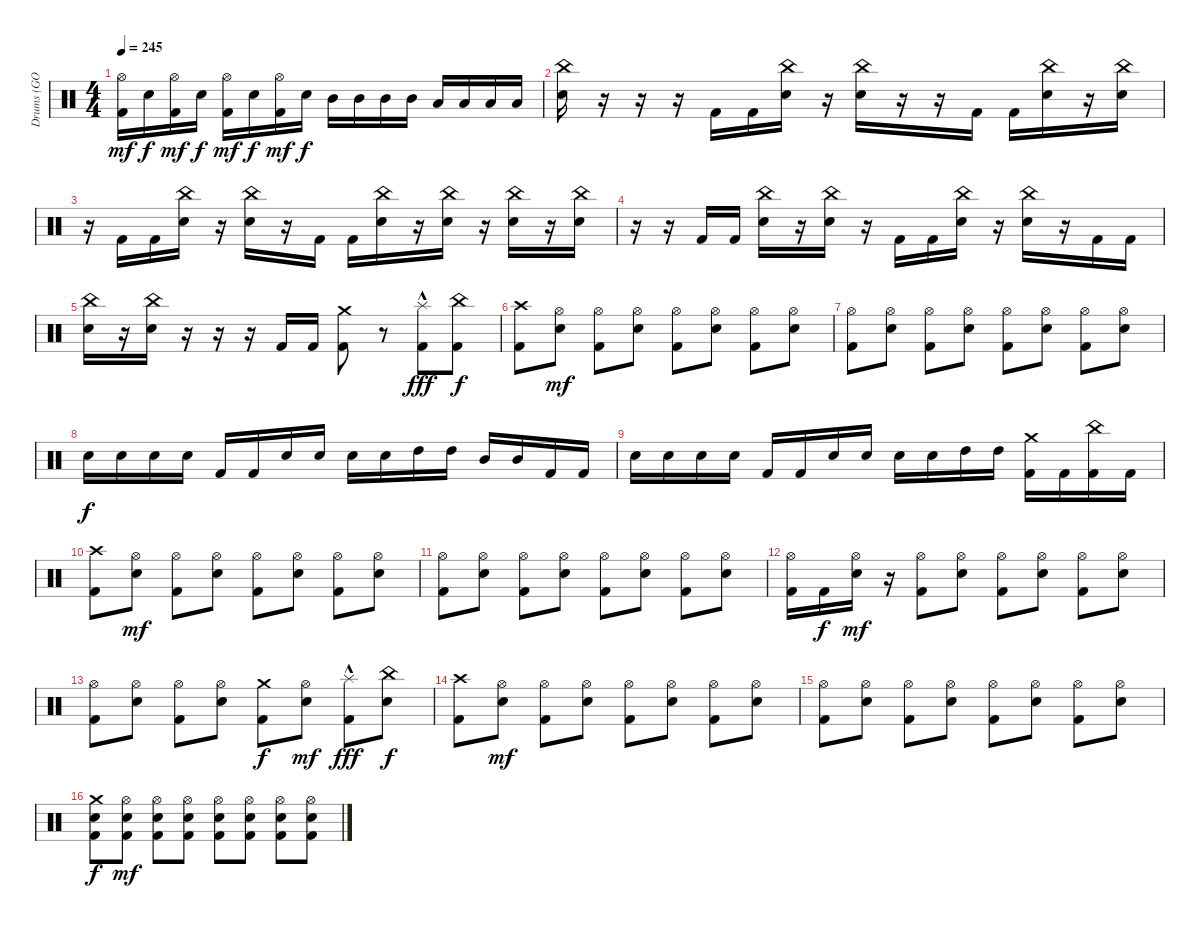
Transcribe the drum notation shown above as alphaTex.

\track ("Drums (GO DIRK)" "Drums (GO ") {instrument percussion}
\staff {score}
\articulation defaults
\ts (4 4)
\tempo 245
\clef neutral
\ks c
("Hi-Hat (open)" "Kick (hit) 2").16{dy mf} "Electric Snare (hit)".16{dy f} ("Hi-Hat (open)" "Kick (hit) 2").16{dy mf} "Electric Snare (hit)".16{dy f} ("Hi-Hat (open)" "Kick (hit) 2").16{dy mf} "Electric Snare (hit)".16{dy f} ("Hi-Hat (open)" "Kick (hit) 2").16{dy mf} "Electric Snare (hit)".16{dy f} "Mid Tom (hit)".16 "Mid Tom (hit)".16 "Mid Tom (hit)".16 "Mid Tom (hit)".16 "Low Tom (hit)".16 "Low Tom (hit)".16 "Low Tom (hit)".16 "Low Tom (hit)".16 |
("China (hit)" "Electric Snare (hit)").16 r.16 r.16 r.16 "Kick (hit) 2".16 "Kick (hit) 2".16 ("China (hit)" "Electric Snare (hit)").16 r.16 ("China (hit)" "Electric Snare (hit)").16 r.16 r.16 "Kick (hit) 2".16 "Kick (hit) 2".16 ("China (hit)" "Electric Snare (hit)").16 r.16 ("China (hit)" "Electric Snare (hit)").16 |
r.16 "Kick (hit) 2".16 "Kick (hit) 2".16 ("China (hit)" "Electric Snare (hit)").16 r.16 ("China (hit)" "Electric Snare (hit)").16 r.16 "Kick (hit) 2".16 "Kick (hit) 2".16 ("China (hit)" "Electric Snare (hit)").16 r.16 ("China (hit)" "Electric Snare (hit)").16 r.16 ("China (hit)" "Electric Snare (hit)").16 r.16 ("China (hit)" "Electric Snare (hit)").16 |
r.16 r.16 "Kick (hit) 2".16 "Kick (hit) 2".16 ("China (hit)" "Electric Snare (hit)").16 r.16 ("China (hit)" "Electric Snare (hit)").16 r.16 "Kick (hit) 2".16 "Kick (hit) 2".16 ("China (hit)" "Electric Snare (hit)").16 r.16 ("China (hit)" "Electric Snare (hit)").16 r.16 "Kick (hit) 2".16 "Kick (hit) 2".16 |
("China (hit)" "Electric Snare (hit)").16 r.16 ("China (hit)" "Electric Snare (hit)").16 r.16 r.16 r.16 "Kick (hit) 2".16 "Kick (hit) 2".16 ("Crash medium (hit)" "Kick (hit) 2").8 r.8 ("Splash (hit)"{hac} "Kick (hit) 2").8{dy fff} ("China (hit)" "Kick (hit) 2").8{dy f} |
("Crash high (hit)" "Kick (hit) 2").8 ("Hi-Hat (open)" "Electric Snare (hit)").8{dy mf} ("Hi-Hat (open)" "Kick (hit) 2").8 ("Hi-Hat (open)" "Electric Snare (hit)").8 ("Hi-Hat (open)" "Kick (hit) 2").8 ("Hi-Hat (open)" "Electric Snare (hit)").8 ("Hi-Hat (open)" "Kick (hit) 2").8 ("Hi-Hat (open)" "Electric Snare (hit)").8 |
("Hi-Hat (open)" "Kick (hit) 2").8 ("Hi-Hat (open)" "Electric Snare (hit)").8 ("Hi-Hat (open)" "Kick (hit) 2").8 ("Hi-Hat (open)" "Electric Snare (hit)").8 ("Hi-Hat (open)" "Kick (hit) 2").8 ("Hi-Hat (open)" "Electric Snare (hit)").8 ("Hi-Hat (open)" "Kick (hit) 2").8 ("Hi-Hat (open)" "Electric Snare (hit)").8 |
"Electric Snare (hit)".16{dy f} "Electric Snare (hit)".16 "Electric Snare (hit)".16 "Electric Snare (hit)".16 "Kick (hit) 2".16 "Kick (hit) 2".16 "Electric Snare (hit)".16 "Electric Snare (hit)".16 "Electric Snare (hit)".16 "Electric Snare (hit)".16 "High Tom (hit)".16 "High Tom (hit)".16 "Mid Tom (hit)".16 "Mid Tom (hit)".16 "Kick (hit) 2".16 "Kick (hit) 2".16 |
"Electric Snare (hit)".16 "Electric Snare (hit)".16 "Electric Snare (hit)".16 "Electric Snare (hit)".16 "Kick (hit) 2".16 "Kick (hit) 2".16 "Electric Snare (hit)".16 "Electric Snare (hit)".16 "Electric Snare (hit)".16 "Electric Snare (hit)".16 "High Tom (hit)".16 "High Tom (hit)".16 ("Crash medium (hit)" "Kick (hit) 2").16 "Kick (hit) 2".16 ("China (hit)" "Kick (hit) 2").16 "Kick (hit) 2".16 |
("Crash high (hit)" "Kick (hit) 2").8 ("Hi-Hat (open)" "Electric Snare (hit)").8{dy mf} ("Hi-Hat (open)" "Kick (hit) 2").8 ("Hi-Hat (open)" "Electric Snare (hit)").8 ("Hi-Hat (open)" "Kick (hit) 2").8 ("Hi-Hat (open)" "Electric Snare (hit)").8 ("Hi-Hat (open)" "Kick (hit) 2").8 ("Hi-Hat (open)" "Electric Snare (hit)").8 |
("Hi-Hat (open)" "Kick (hit) 2").8 ("Hi-Hat (open)" "Electric Snare (hit)").8 ("Hi-Hat (open)" "Kick (hit) 2").8 ("Hi-Hat (open)" "Electric Snare (hit)").8 ("Hi-Hat (open)" "Kick (hit) 2").8 ("Hi-Hat (open)" "Electric Snare (hit)").8 ("Hi-Hat (open)" "Kick (hit) 2").8 ("Hi-Hat (open)" "Electric Snare (hit)").8 |
("Hi-Hat (open)" "Kick (hit) 2").16 "Kick (hit) 2".16{dy f} ("Hi-Hat (open)" "Electric Snare (hit)").16{dy mf} r.16 ("Hi-Hat (open)" "Kick (hit) 2").8 ("Hi-Hat (open)" "Electric Snare (hit)").8 ("Hi-Hat (open)" "Kick (hit) 2").8 ("Hi-Hat (open)" "Electric Snare (hit)").8 ("Hi-Hat (open)" "Kick (hit) 2").8 ("Hi-Hat (open)" "Electric Snare (hit)").8 |
("Hi-Hat (open)" "Kick (hit) 2").8 ("Hi-Hat (open)" "Electric Snare (hit)").8 ("Hi-Hat (open)" "Kick (hit) 2").8 ("Hi-Hat (open)" "Electric Snare (hit)").8 ("Crash medium (hit)" "Kick (hit) 2").8{dy f} ("Hi-Hat (open)" "Electric Snare (hit)").8{dy mf} ("Splash (hit)"{hac} "Kick (hit) 2").8{dy fff} ("China (hit)" "Electric Snare (hit)").8{dy f} |
("Crash high (hit)" "Kick (hit) 2").8 ("Hi-Hat (open)" "Electric Snare (hit)").8{dy mf} ("Hi-Hat (open)" "Kick (hit) 2").8 ("Hi-Hat (open)" "Electric Snare (hit)").8 ("Hi-Hat (open)" "Kick (hit) 2").8 ("Hi-Hat (open)" "Electric Snare (hit)").8 ("Hi-Hat (open)" "Kick (hit) 2").8 ("Hi-Hat (open)" "Electric Snare (hit)").8 |
("Hi-Hat (open)" "Kick (hit) 2").8 ("Hi-Hat (open)" "Electric Snare (hit)").8 ("Hi-Hat (open)" "Kick (hit) 2").8 ("Hi-Hat (open)" "Electric Snare (hit)").8 ("Hi-Hat (open)" "Kick (hit) 2").8 ("Hi-Hat (open)" "Electric Snare (hit)").8 ("Hi-Hat (open)" "Kick (hit) 2").8 ("Hi-Hat (open)" "Electric Snare (hit)").8 |
("Crash medium (hit)" "Electric Snare (hit)" "Kick (hit) 2").8{dy f} ("Hi-Hat (open)" "Electric Snare (hit)" "Kick (hit) 2").8{dy mf} ("Hi-Hat (open)" "Electric Snare (hit)" "Kick (hit) 2").8 ("Hi-Hat (open)" "Electric Snare (hit)" "Kick (hit) 2").8 ("Hi-Hat (open)" "Electric Snare (hit)" "Kick (hit) 2").8 ("Hi-Hat (open)" "Electric Snare (hit)" "Kick (hit) 2").8 ("Hi-Hat (open)" "Electric Snare (hit)" "Kick (hit) 2").8 ("Hi-Hat (open)" "Electric Snare (hit)" "Kick (hit) 2").8
